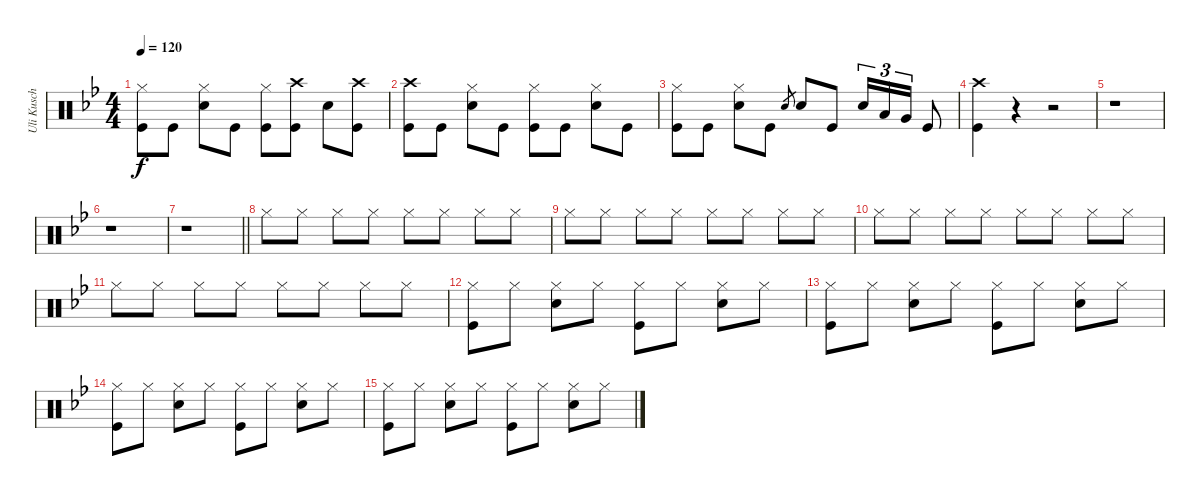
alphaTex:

\track ("Uli Kusch" "Uli Kusch") {instrument percussion}
\staff {score}
\articulation defaults
\ts (4 4)
\tempo 120
\clef neutral
\ks gminor
("Hi-Hat (closed)" "Kick (hit)").8{dy f} "Kick (hit)".8 ("Hi-Hat (closed)" "Snare (hit) 2").8 "Kick (hit)".8 ("Hi-Hat (closed)" "Kick (hit)").8 ("Crash high (hit)" "Kick (hit)").8 "Snare (hit) 2".8 ("Crash high (hit)" "Kick (hit)").8 |
("Crash high (hit)" "Kick (hit)").8 "Kick (hit)".8 ("Hi-Hat (closed)" "Snare (hit) 2").8 "Kick (hit)".8 ("Hi-Hat (closed)" "Kick (hit)").8 "Kick (hit)".8 ("Hi-Hat (closed)" "Snare (hit) 2").8 "Kick (hit)".8 |
("Hi-Hat (closed)" "Kick (hit)").8 "Kick (hit)".8 ("Hi-Hat (closed)" "Snare (hit) 2").8 "Kick (hit)".8 "Snare (hit) 2".8{gr} "Snare (hit) 2".8 "Kick (hit)".8 "Snare (hit) 2".16{tu (3 2)} "Low Tom (hit)".16{tu (3 2)} "Very Low Tom (hit)".16{tu (3 2)} "Kick (hit)".8 |
("Crash high (hit)" "Kick (hit)").4 r.4 r.2 |
r.1 |
r.1 |
\barLineRight lightlight
r.1 |
"Hi-Hat (closed)".8 "Hi-Hat (closed)".8 "Hi-Hat (closed)".8 "Hi-Hat (closed)".8 "Hi-Hat (closed)".8 "Hi-Hat (closed)".8 "Hi-Hat (closed)".8 "Hi-Hat (closed)".8 |
"Hi-Hat (closed)".8 "Hi-Hat (closed)".8 "Hi-Hat (closed)".8 "Hi-Hat (closed)".8 "Hi-Hat (closed)".8 "Hi-Hat (closed)".8 "Hi-Hat (closed)".8 "Hi-Hat (closed)".8 |
"Hi-Hat (closed)".8 "Hi-Hat (closed)".8 "Hi-Hat (closed)".8 "Hi-Hat (closed)".8 "Hi-Hat (closed)".8 "Hi-Hat (closed)".8 "Hi-Hat (closed)".8 "Hi-Hat (closed)".8 |
"Hi-Hat (closed)".8 "Hi-Hat (closed)".8 "Hi-Hat (closed)".8 "Hi-Hat (closed)".8 "Hi-Hat (closed)".8 "Hi-Hat (closed)".8 "Hi-Hat (closed)".8 "Hi-Hat (closed)".8 |
("Hi-Hat (closed)" "Kick (hit)").8 "Hi-Hat (closed)".8 ("Hi-Hat (closed)" "Snare (hit) 2").8 "Hi-Hat (closed)".8 ("Hi-Hat (closed)" "Kick (hit)").8 "Hi-Hat (closed)".8 ("Hi-Hat (closed)" "Snare (hit) 2").8 "Hi-Hat (closed)".8 |
("Hi-Hat (closed)" "Kick (hit)").8 "Hi-Hat (closed)".8 ("Hi-Hat (closed)" "Snare (hit) 2").8 "Hi-Hat (closed)".8 ("Hi-Hat (closed)" "Kick (hit)").8 "Hi-Hat (closed)".8 ("Hi-Hat (closed)" "Snare (hit) 2").8 "Hi-Hat (closed)".8 |
("Hi-Hat (closed)" "Kick (hit)").8 "Hi-Hat (closed)".8 ("Hi-Hat (closed)" "Snare (hit) 2").8 "Hi-Hat (closed)".8 ("Hi-Hat (closed)" "Kick (hit)").8 "Hi-Hat (closed)".8 ("Hi-Hat (closed)" "Snare (hit) 2").8 "Hi-Hat (closed)".8 |
("Hi-Hat (closed)" "Kick (hit)").8 "Hi-Hat (closed)".8 ("Hi-Hat (closed)" "Snare (hit) 2").8 "Hi-Hat (closed)".8 ("Hi-Hat (closed)" "Kick (hit)").8 "Hi-Hat (closed)".8 ("Hi-Hat (closed)" "Snare (hit) 2").8 "Hi-Hat (closed)".8
